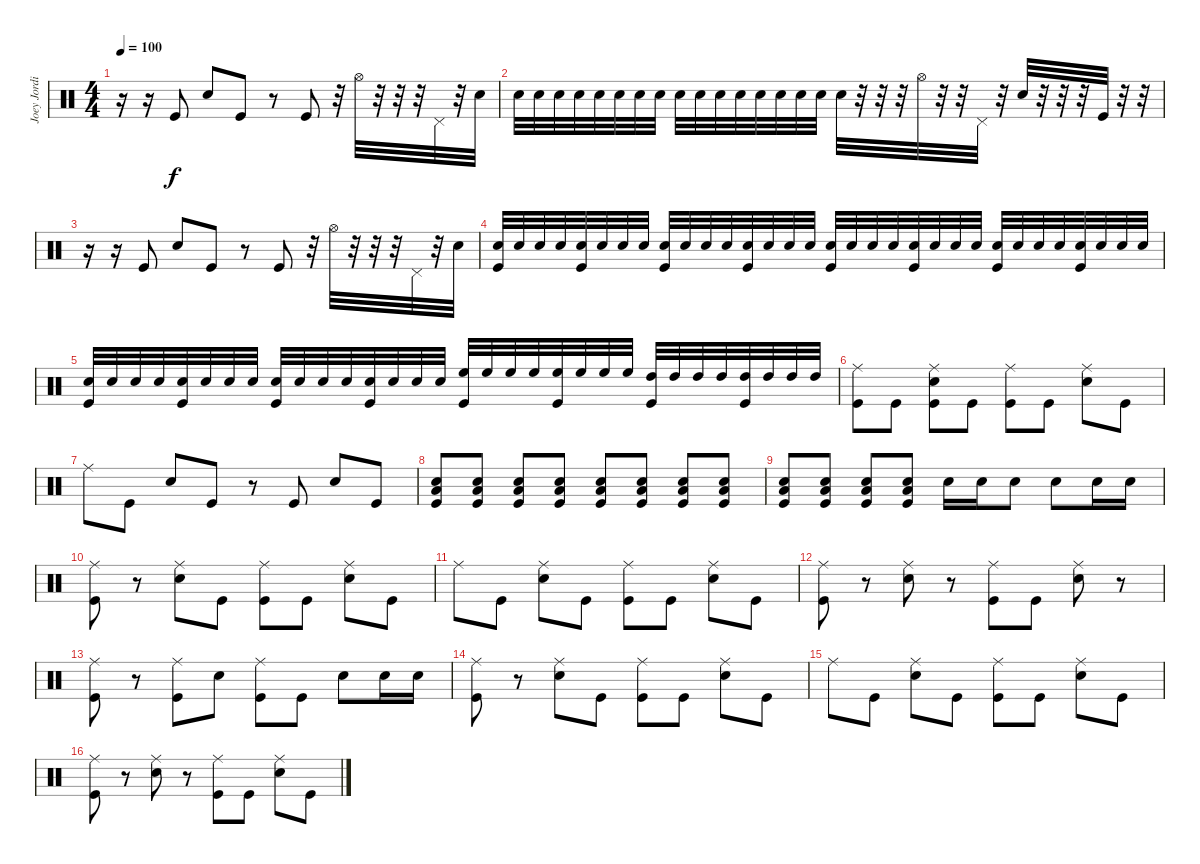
\track ("Joey Jordison" "Joey Jordi") {instrument percussion}
\staff {score}
\articulation defaults
\ts (4 4)
\tempo 100
\clef neutral
\ks c
r.16{dy f} r.16 "Kick (hit)".8 "Snare (hit) 2".8 "Kick (hit)".8 r.8 "Kick (hit)".8 r.32 "Hi-Hat (open)".32 r.32 r.32 r.32 "Pedal Hi-Hat (hit)".32 r.32 "Snare (hit) 2".32 |
"Snare (hit) 2".32 "Snare (hit) 2".32 "Snare (hit) 2".32 "Snare (hit) 2".32 "Snare (hit) 2".32 "Snare (hit) 2".32 "Snare (hit) 2".32 "Snare (hit) 2".32 "Snare (hit) 2".32 "Snare (hit) 2".32 "Snare (hit) 2".32 "Snare (hit) 2".32 "Snare (hit) 2".32 "Snare (hit) 2".32 "Snare (hit) 2".32 "Snare (hit) 2".32 "Snare (hit) 2".32 r.32 r.32 r.32 "Hi-Hat (open)".32 r.32 r.32 "Pedal Hi-Hat (hit)".32 r.32 "Snare (hit) 2".32 r.32 r.32 r.32 "Kick (hit)".32 r.32 r.32 |
r.16 r.16 "Kick (hit)".8 "Snare (hit) 2".8 "Kick (hit)".8 r.8 "Kick (hit)".8 r.32 "Hi-Hat (open)".32 r.32 r.32 r.32 "Pedal Hi-Hat (hit)".32 r.32 "Snare (hit) 2".32 |
("Snare (hit) 2" "Kick (hit)").32 "Snare (hit) 2".32 "Snare (hit) 2".32 "Snare (hit) 2".32 ("Snare (hit) 2" "Kick (hit)").32 "Snare (hit) 2".32 "Snare (hit) 2".32 "Snare (hit) 2".32 ("Snare (hit) 2" "Kick (hit)").32 "Snare (hit) 2".32 "Snare (hit) 2".32 "Snare (hit) 2".32 ("Snare (hit) 2" "Kick (hit)").32 "Snare (hit) 2".32 "Snare (hit) 2".32 "Snare (hit) 2".32 ("Snare (hit) 2" "Kick (hit)").32 "Snare (hit) 2".32 "Snare (hit) 2".32 "Snare (hit) 2".32 ("Snare (hit) 2" "Kick (hit)").32 "Snare (hit) 2".32 "Snare (hit) 2".32 "Snare (hit) 2".32 ("Snare (hit) 2" "Kick (hit)").32 "Snare (hit) 2".32 "Snare (hit) 2".32 "Snare (hit) 2".32 ("Snare (hit) 2" "Kick (hit)").32 "Snare (hit) 2".32 "Snare (hit) 2".32 "Snare (hit) 2".32 |
("Snare (hit) 2" "Kick (hit)").32 "Snare (hit) 2".32 "Snare (hit) 2".32 "Snare (hit) 2".32 ("Snare (hit) 2" "Kick (hit)").32 "Snare (hit) 2".32 "Snare (hit) 2".32 "Snare (hit) 2".32 ("Snare (hit) 2" "Kick (hit)").32 "Snare (hit) 2".32 "Snare (hit) 2".32 "Snare (hit) 2".32 ("Snare (hit) 2" "Kick (hit)").32 "Snare (hit) 2".32 "Snare (hit) 2".32 "Snare (hit) 2".32 ("High Floor Tom (hit)" "Kick (hit)").32 "High Floor Tom (hit)".32 "High Floor Tom (hit)".32 "High Floor Tom (hit)".32 ("High Floor Tom (hit)" "Kick (hit)").32 "High Floor Tom (hit)".32 "High Floor Tom (hit)".32 "High Floor Tom (hit)".32 ("High Tom (hit)" "Kick (hit)").32 "High Tom (hit)".32 "High Tom (hit)".32 "High Tom (hit)".32 ("High Tom (hit)" "Kick (hit)").32 "High Tom (hit)".32 "High Tom (hit)".32 "High Tom (hit)".32 |
("Kick (hit)" "Ride (middle)").8 "Kick (hit)".8 ("Kick (hit)" "Ride (middle)" "Snare (hit) 2").8 "Kick (hit)".8 ("Kick (hit)" "Ride (middle)").8 "Kick (hit)".8 ("Snare (hit) 2" "Ride (middle)").8 "Kick (hit)".8 |
"Ride (middle)".8 "Kick (hit)".8 "Snare (hit) 2".8 "Kick (hit)".8 r.8 "Kick (hit)".8 "Snare (hit) 2".8 "Kick (hit)".8 |
("Snare (hit) 2" "Low Floor Tom (hit)" "Kick (hit)").8 ("Snare (hit) 2" "Low Floor Tom (hit)" "Kick (hit)").8 ("Snare (hit) 2" "Low Floor Tom (hit)" "Kick (hit)").8 ("Snare (hit) 2" "Low Floor Tom (hit)" "Kick (hit)").8 ("Snare (hit) 2" "Low Floor Tom (hit)" "Kick (hit)").8 ("Snare (hit) 2" "Low Floor Tom (hit)" "Kick (hit)").8 ("Snare (hit) 2" "Low Floor Tom (hit)" "Kick (hit)").8 ("Snare (hit) 2" "Low Floor Tom (hit)" "Kick (hit)").8 |
("Snare (hit) 2" "Low Floor Tom (hit)" "Kick (hit)").8 ("Snare (hit) 2" "Low Floor Tom (hit)" "Kick (hit)").8 ("Snare (hit) 2" "Low Floor Tom (hit)" "Kick (hit)").8 ("Snare (hit) 2" "Low Floor Tom (hit)" "Kick (hit)").8 "Snare (hit) 2".16 "Snare (hit) 2".16 "Snare (hit) 2".8 "Snare (hit) 2".8 "Snare (hit) 2".16 "Snare (hit) 2".16 |
("Kick (hit)" "Ride (middle)").8 r.8 ("Snare (hit) 2" "Ride (middle)").8 "Kick (hit)".8 ("Kick (hit)" "Ride (middle)").8 "Kick (hit)".8 ("Snare (hit) 2" "Ride (middle)").8 "Kick (hit)".8 |
"Ride (middle)".8 "Kick (hit)".8 ("Snare (hit) 2" "Ride (middle)").8 "Kick (hit)".8 ("Kick (hit)" "Ride (middle)").8 "Kick (hit)".8 ("Snare (hit) 2" "Ride (middle)").8 "Kick (hit)".8 |
("Kick (hit)" "Ride (middle)").8 r.8 ("Snare (hit) 2" "Ride (middle)").8 r.8 ("Kick (hit)" "Ride (middle)").8 "Kick (hit)".8 ("Snare (hit) 2" "Ride (middle)").8 r.8 |
("Kick (hit)" "Ride (middle)").8 r.8 ("Kick (hit)" "Ride (middle)").8 "Snare (hit) 2".8 ("Kick (hit)" "Ride (middle)").8 "Kick (hit)".8 "Snare (hit) 2".8 "Snare (hit) 2".16 "Snare (hit) 2".16 |
("Kick (hit)" "Ride (middle)").8 r.8 ("Snare (hit) 2" "Ride (middle)").8 "Kick (hit)".8 ("Kick (hit)" "Ride (middle)").8 "Kick (hit)".8 ("Snare (hit) 2" "Ride (middle)").8 "Kick (hit)".8 |
"Ride (middle)".8 "Kick (hit)".8 ("Snare (hit) 2" "Ride (middle)").8 "Kick (hit)".8 ("Kick (hit)" "Ride (middle)").8 "Kick (hit)".8 ("Snare (hit) 2" "Ride (middle)").8 "Kick (hit)".8 |
("Kick (hit)" "Ride (middle)").8 r.8 ("Snare (hit) 2" "Ride (middle)").8 r.8 ("Kick (hit)" "Ride (middle)").8 "Kick (hit)".8 ("Snare (hit) 2" "Ride (middle)").8 "Kick (hit)".8
